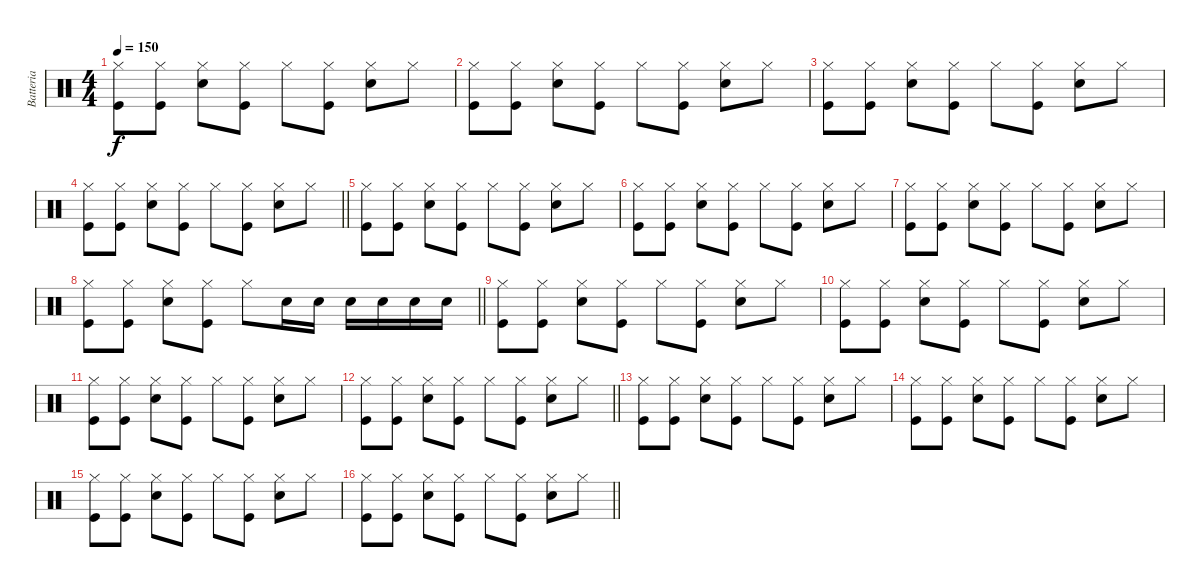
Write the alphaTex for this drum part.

\track ("Batteria" "Batteria") {instrument percussion}
\staff {score}
\articulation defaults
\ts (4 4)
\tempo 150
\clef neutral
\ks c
("Hi-Hat (closed)" "Kick (hit)").8{dy f} ("Hi-Hat (closed)" "Kick (hit)").8 ("Hi-Hat (closed)" "Snare (hit) 2").8 ("Hi-Hat (closed)" "Kick (hit)").8 "Hi-Hat (closed)".8 ("Hi-Hat (closed)" "Kick (hit)").8 ("Hi-Hat (closed)" "Snare (hit) 2").8 "Hi-Hat (closed)".8 |
("Hi-Hat (closed)" "Kick (hit)").8 ("Hi-Hat (closed)" "Kick (hit)").8 ("Hi-Hat (closed)" "Snare (hit) 2").8 ("Hi-Hat (closed)" "Kick (hit)").8 "Hi-Hat (closed)".8 ("Hi-Hat (closed)" "Kick (hit)").8 ("Hi-Hat (closed)" "Snare (hit) 2").8 "Hi-Hat (closed)".8 |
("Hi-Hat (closed)" "Kick (hit)").8 ("Hi-Hat (closed)" "Kick (hit)").8 ("Hi-Hat (closed)" "Snare (hit) 2").8 ("Hi-Hat (closed)" "Kick (hit)").8 "Hi-Hat (closed)".8 ("Hi-Hat (closed)" "Kick (hit)").8 ("Hi-Hat (closed)" "Snare (hit) 2").8 "Hi-Hat (closed)".8 |
\barLineRight lightlight
("Hi-Hat (closed)" "Kick (hit)").8 ("Hi-Hat (closed)" "Kick (hit)").8 ("Hi-Hat (closed)" "Snare (hit) 2").8 ("Hi-Hat (closed)" "Kick (hit)").8 "Hi-Hat (closed)".8 ("Hi-Hat (closed)" "Kick (hit)").8 ("Hi-Hat (closed)" "Snare (hit) 2").8 "Hi-Hat (closed)".8 |
("Hi-Hat (closed)" "Kick (hit)").8 ("Hi-Hat (closed)" "Kick (hit)").8 ("Hi-Hat (closed)" "Snare (hit) 2").8 ("Hi-Hat (closed)" "Kick (hit)").8 "Hi-Hat (closed)".8 ("Hi-Hat (closed)" "Kick (hit)").8 ("Hi-Hat (closed)" "Snare (hit) 2").8 "Hi-Hat (closed)".8 |
("Hi-Hat (closed)" "Kick (hit)").8 ("Hi-Hat (closed)" "Kick (hit)").8 ("Hi-Hat (closed)" "Snare (hit) 2").8 ("Hi-Hat (closed)" "Kick (hit)").8 "Hi-Hat (closed)".8 ("Hi-Hat (closed)" "Kick (hit)").8 ("Hi-Hat (closed)" "Snare (hit) 2").8 "Hi-Hat (closed)".8 |
("Hi-Hat (closed)" "Kick (hit)").8 ("Hi-Hat (closed)" "Kick (hit)").8 ("Hi-Hat (closed)" "Snare (hit) 2").8 ("Hi-Hat (closed)" "Kick (hit)").8 "Hi-Hat (closed)".8 ("Hi-Hat (closed)" "Kick (hit)").8 ("Hi-Hat (closed)" "Snare (hit) 2").8 "Hi-Hat (closed)".8 |
\barLineRight lightlight
("Hi-Hat (closed)" "Kick (hit)").8 ("Hi-Hat (closed)" "Kick (hit)").8 ("Hi-Hat (closed)" "Snare (hit) 2").8 ("Hi-Hat (closed)" "Kick (hit)").8 "Hi-Hat (closed)".8 "Snare (hit) 2".16 "Snare (hit) 2".16 "Snare (hit) 2".16 "Snare (hit) 2".16 "Snare (hit) 2".16 "Snare (hit) 2".16 |
("Hi-Hat (closed)" "Kick (hit)").8 ("Hi-Hat (closed)" "Kick (hit)").8 ("Hi-Hat (closed)" "Snare (hit) 2").8 ("Hi-Hat (closed)" "Kick (hit)").8 "Hi-Hat (closed)".8 ("Hi-Hat (closed)" "Kick (hit)").8 ("Hi-Hat (closed)" "Snare (hit) 2").8 "Hi-Hat (closed)".8 |
("Hi-Hat (closed)" "Kick (hit)").8 ("Hi-Hat (closed)" "Kick (hit)").8 ("Hi-Hat (closed)" "Snare (hit) 2").8 ("Hi-Hat (closed)" "Kick (hit)").8 "Hi-Hat (closed)".8 ("Hi-Hat (closed)" "Kick (hit)").8 ("Hi-Hat (closed)" "Snare (hit) 2").8 "Hi-Hat (closed)".8 |
("Hi-Hat (closed)" "Kick (hit)").8 ("Hi-Hat (closed)" "Kick (hit)").8 ("Hi-Hat (closed)" "Snare (hit) 2").8 ("Hi-Hat (closed)" "Kick (hit)").8 "Hi-Hat (closed)".8 ("Hi-Hat (closed)" "Kick (hit)").8 ("Hi-Hat (closed)" "Snare (hit) 2").8 "Hi-Hat (closed)".8 |
\barLineRight lightlight
("Hi-Hat (closed)" "Kick (hit)").8 ("Hi-Hat (closed)" "Kick (hit)").8 ("Hi-Hat (closed)" "Snare (hit) 2").8 ("Hi-Hat (closed)" "Kick (hit)").8 "Hi-Hat (closed)".8 ("Hi-Hat (closed)" "Kick (hit)").8 ("Hi-Hat (closed)" "Snare (hit) 2").8 "Hi-Hat (closed)".8 |
("Hi-Hat (closed)" "Kick (hit)").8 ("Hi-Hat (closed)" "Kick (hit)").8 ("Hi-Hat (closed)" "Snare (hit) 2").8 ("Hi-Hat (closed)" "Kick (hit)").8 "Hi-Hat (closed)".8 ("Hi-Hat (closed)" "Kick (hit)").8 ("Hi-Hat (closed)" "Snare (hit) 2").8 "Hi-Hat (closed)".8 |
("Hi-Hat (closed)" "Kick (hit)").8 ("Hi-Hat (closed)" "Kick (hit)").8 ("Hi-Hat (closed)" "Snare (hit) 2").8 ("Hi-Hat (closed)" "Kick (hit)").8 "Hi-Hat (closed)".8 ("Hi-Hat (closed)" "Kick (hit)").8 ("Hi-Hat (closed)" "Snare (hit) 2").8 "Hi-Hat (closed)".8 |
("Hi-Hat (closed)" "Kick (hit)").8 ("Hi-Hat (closed)" "Kick (hit)").8 ("Hi-Hat (closed)" "Snare (hit) 2").8 ("Hi-Hat (closed)" "Kick (hit)").8 "Hi-Hat (closed)".8 ("Hi-Hat (closed)" "Kick (hit)").8 ("Hi-Hat (closed)" "Snare (hit) 2").8 "Hi-Hat (closed)".8 |
\barLineRight lightlight
("Hi-Hat (closed)" "Kick (hit)").8 ("Hi-Hat (closed)" "Kick (hit)").8 ("Hi-Hat (closed)" "Snare (hit) 2").8 ("Hi-Hat (closed)" "Kick (hit)").8 "Hi-Hat (closed)".8 ("Hi-Hat (closed)" "Kick (hit)").8 ("Hi-Hat (closed)" "Snare (hit) 2").8 "Hi-Hat (closed)".8
